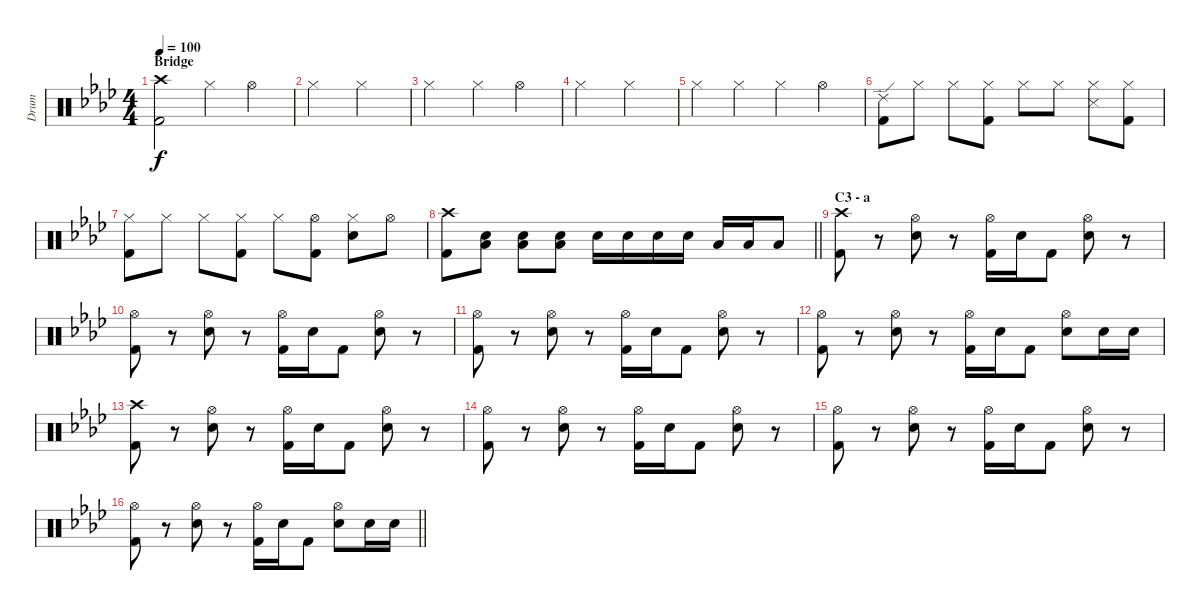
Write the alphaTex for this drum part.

\track ("Drum" "Drum") {instrument percussion}
\staff {score}
\articulation defaults
\ts (4 4)
\section ("" "Bridge")
\tempo 100
\clef neutral
\ks ab
("Crash high (hit)" "Kick (hit) 2").2{dy f} "Hi-Hat (closed)".4 "Hi-Hat (open)".4 |
"Hi-Hat (closed)".2 "Hi-Hat (closed)".2 |
"Hi-Hat (closed)".2 "Hi-Hat (closed)".4 "Hi-Hat (open)".4 |
"Hi-Hat (closed)".2 "Hi-Hat (closed)".2 |
"Hi-Hat (closed)".4 "Hi-Hat (closed)".4 "Hi-Hat (closed)".4 "Hi-Hat (open)".4 |
("Ride (edge) 2" "Kick (hit) 2").8 "Hi-Hat (closed)".8 "Hi-Hat (closed)".8 ("Hi-Hat (closed)" "Kick (hit) 2").8 "Hi-Hat (closed)".8 "Hi-Hat (closed)".8 ("Hi-Hat (closed)" "Snare (side stick) 3").8 ("Hi-Hat (closed)" "Kick (hit) 2").8 |
("Hi-Hat (closed)" "Kick (hit) 2").8 "Hi-Hat (closed)".8 "Hi-Hat (closed)".8 ("Hi-Hat (closed)" "Kick (hit) 2").8 "Hi-Hat (closed)".8 ("Hi-Hat (open)" "Kick (hit) 2").8 ("Hi-Hat (closed)" "Snare (hit) 2").8 "Hi-Hat (open)".8 |
\barLineRight lightlight
("Crash high (hit)" "Kick (hit) 2").8 ("Low Floor Tom (hit)" "Snare (hit) 2").8 ("Low Floor Tom (hit)" "Snare (hit) 2").8 ("Low Floor Tom (hit)" "Snare (hit) 2").8 "Snare (hit) 2".16 "Snare (hit) 2".16 "Snare (hit) 2".16 "Snare (hit) 2".16 "Low Tom (hit)".16 "Low Floor Tom (hit)".16 "Low Floor Tom (hit)".8 |
\section ("" "C3 - a")
("Crash high (hit)" "Kick (hit) 2").8 r.8 ("Hi-Hat (open)" "Snare (hit) 2").8 r.8 ("Hi-Hat (open)" "Kick (hit) 2").16 "Snare (hit) 2".16 "Kick (hit) 2".8 ("Hi-Hat (open)" "Snare (hit) 2").8 r.8 |
("Hi-Hat (open)" "Kick (hit) 2").8 r.8 ("Hi-Hat (open)" "Snare (hit) 2").8 r.8 ("Hi-Hat (open)" "Kick (hit) 2").16 "Snare (hit) 2".16 "Kick (hit) 2".8 ("Hi-Hat (open)" "Snare (hit) 2").8 r.8 |
("Hi-Hat (open)" "Kick (hit) 2").8 r.8 ("Hi-Hat (open)" "Snare (hit) 2").8 r.8 ("Hi-Hat (open)" "Kick (hit) 2").16 "Snare (hit) 2".16 "Kick (hit) 2".8 ("Hi-Hat (open)" "Snare (hit) 2").8 r.8 |
("Hi-Hat (open)" "Kick (hit) 2").8 r.8 ("Hi-Hat (open)" "Snare (hit) 2").8 r.8 ("Hi-Hat (open)" "Kick (hit) 2").16 "Snare (hit) 2".16 "Kick (hit) 2".8 ("Hi-Hat (open)" "Snare (hit) 2").8 "Snare (hit) 2".16 "Snare (hit) 2".16 |
("Crash high (hit)" "Kick (hit) 2").8 r.8 ("Hi-Hat (open)" "Snare (hit) 2").8 r.8 ("Hi-Hat (open)" "Kick (hit) 2").16 "Snare (hit) 2".16 "Kick (hit) 2".8 ("Hi-Hat (open)" "Snare (hit) 2").8 r.8 |
("Hi-Hat (open)" "Kick (hit) 2").8 r.8 ("Hi-Hat (open)" "Snare (hit) 2").8 r.8 ("Hi-Hat (open)" "Kick (hit) 2").16 "Snare (hit) 2".16 "Kick (hit) 2".8 ("Hi-Hat (open)" "Snare (hit) 2").8 r.8 |
("Hi-Hat (open)" "Kick (hit) 2").8 r.8 ("Hi-Hat (open)" "Snare (hit) 2").8 r.8 ("Hi-Hat (open)" "Kick (hit) 2").16 "Snare (hit) 2".16 "Kick (hit) 2".8 ("Hi-Hat (open)" "Snare (hit) 2").8 r.8 |
\barLineRight lightlight
("Hi-Hat (open)" "Kick (hit) 2").8 r.8 ("Hi-Hat (open)" "Snare (hit) 2").8 r.8 ("Hi-Hat (open)" "Kick (hit) 2").16 "Snare (hit) 2".16 "Kick (hit) 2".8 ("Hi-Hat (open)" "Snare (hit) 2").8 "Snare (hit) 2".16 "Snare (hit) 2".16
